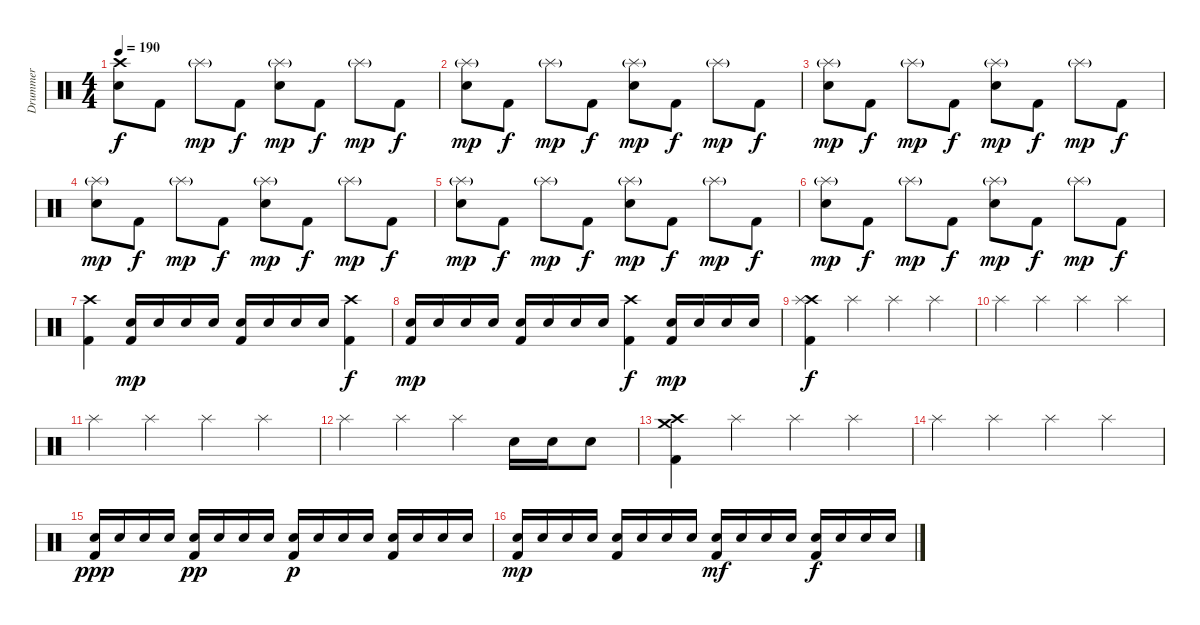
\track ("Drummer" "Drummer") {instrument percussion bank 7}
\staff {score}
\articulation defaults
\ts (4 4)
\tempo 190
\clef neutral
\ks c
("Crash high (hit)" "Electric Snare (hit)").8{dy f} "Kick (hit) 2".8 "Splash (hit)"{g}.8{dy mp} "Kick (hit) 2".8{dy f} ("Splash (hit)"{g} "Electric Snare (hit)").8{dy mp} "Kick (hit) 2".8{dy f} "Splash (hit)"{g}.8{dy mp} "Kick (hit) 2".8{dy f} |
("Splash (hit)"{g} "Electric Snare (hit)").8{dy mp} "Kick (hit) 2".8{dy f} "Splash (hit)"{g}.8{dy mp} "Kick (hit) 2".8{dy f} ("Splash (hit)"{g} "Electric Snare (hit)").8{dy mp} "Kick (hit) 2".8{dy f} "Splash (hit)"{g}.8{dy mp} "Kick (hit) 2".8{dy f} |
("Splash (hit)"{g} "Electric Snare (hit)").8{dy mp} "Kick (hit) 2".8{dy f} "Splash (hit)"{g}.8{dy mp} "Kick (hit) 2".8{dy f} ("Splash (hit)"{g} "Electric Snare (hit)").8{dy mp} "Kick (hit) 2".8{dy f} "Splash (hit)"{g}.8{dy mp} "Kick (hit) 2".8{dy f} |
("Splash (hit)"{g} "Electric Snare (hit)").8{dy mp} "Kick (hit) 2".8{dy f} "Splash (hit)"{g}.8{dy mp} "Kick (hit) 2".8{dy f} ("Splash (hit)"{g} "Electric Snare (hit)").8{dy mp} "Kick (hit) 2".8{dy f} "Splash (hit)"{g}.8{dy mp} "Kick (hit) 2".8{dy f} |
("Splash (hit)"{g} "Electric Snare (hit)").8{dy mp} "Kick (hit) 2".8{dy f} "Splash (hit)"{g}.8{dy mp} "Kick (hit) 2".8{dy f} ("Splash (hit)"{g} "Electric Snare (hit)").8{dy mp} "Kick (hit) 2".8{dy f} "Splash (hit)"{g}.8{dy mp} "Kick (hit) 2".8{dy f} |
("Splash (hit)"{g} "Electric Snare (hit)").8{dy mp} "Kick (hit) 2".8{dy f} "Splash (hit)"{g}.8{dy mp} "Kick (hit) 2".8{dy f} ("Splash (hit)"{g} "Electric Snare (hit)").8{dy mp} "Kick (hit) 2".8{dy f} "Splash (hit)"{g}.8{dy mp} "Kick (hit) 2".8{dy f} |
("Crash high (hit)" "Kick (hit) 2").4 ("Electric Snare (hit)" "Kick (hit) 2").16{dy mp} "Electric Snare (hit)".16 "Electric Snare (hit)".16 "Electric Snare (hit)".16 ("Electric Snare (hit)" "Kick (hit) 2").16 "Electric Snare (hit)".16 "Electric Snare (hit)".16 "Electric Snare (hit)".16 ("Crash high (hit)" "Kick (hit) 2").4{dy f} |
("Electric Snare (hit)" "Kick (hit) 2").16{dy mp} "Electric Snare (hit)".16 "Electric Snare (hit)".16 "Electric Snare (hit)".16 ("Electric Snare (hit)" "Kick (hit) 2").16 "Electric Snare (hit)".16 "Electric Snare (hit)".16 "Electric Snare (hit)".16 ("Crash high (hit)" "Kick (hit) 2").4{dy f} ("Electric Snare (hit)" "Kick (hit) 2").16{dy mp} "Electric Snare (hit)".16 "Electric Snare (hit)".16 "Electric Snare (hit)".16 |
("Crash high (hit)" "Splash (hit)" "Kick (hit) 2").4{dy f} "Splash (hit)".4 "Splash (hit)".4 "Splash (hit)".4 |
"Splash (hit)".4 "Splash (hit)".4 "Splash (hit)".4 "Splash (hit)".4 |
"Splash (hit)".4 "Splash (hit)".4 "Splash (hit)".4 "Splash (hit)".4 |
"Splash (hit)".4 "Splash (hit)".4 "Splash (hit)".4 "Electric Snare (hit)".16 "Electric Snare (hit)".16 "Electric Snare (hit)".8 |
("Crash high (hit)" "Crash medium (hit)" "Kick (hit) 2").4 "Splash (hit)".4 "Splash (hit)".4 "Splash (hit)".4 |
"Splash (hit)".4 "Splash (hit)".4 "Splash (hit)".4 "Splash (hit)".4 |
("Electric Snare (hit)" "Kick (hit) 2").16{dy ppp} "Electric Snare (hit)".16 "Electric Snare (hit)".16 "Electric Snare (hit)".16 ("Electric Snare (hit)" "Kick (hit) 2").16{dy pp} "Electric Snare (hit)".16 "Electric Snare (hit)".16 "Electric Snare (hit)".16 ("Electric Snare (hit)" "Kick (hit) 2").16{dy p} "Electric Snare (hit)".16 "Electric Snare (hit)".16 "Electric Snare (hit)".16 ("Electric Snare (hit)" "Kick (hit) 2").16 "Electric Snare (hit)".16 "Electric Snare (hit)".16 "Electric Snare (hit)".16 |
("Electric Snare (hit)" "Kick (hit) 2").16{dy mp} "Electric Snare (hit)".16 "Electric Snare (hit)".16 "Electric Snare (hit)".16 ("Electric Snare (hit)" "Kick (hit) 2").16 "Electric Snare (hit)".16 "Electric Snare (hit)".16 "Electric Snare (hit)".16 ("Electric Snare (hit)" "Kick (hit) 2").16{dy mf} "Electric Snare (hit)".16 "Electric Snare (hit)".16 "Electric Snare (hit)".16 ("Electric Snare (hit)" "Kick (hit) 2").16{dy f} "Electric Snare (hit)".16 "Electric Snare (hit)".16 "Electric Snare (hit)".16
